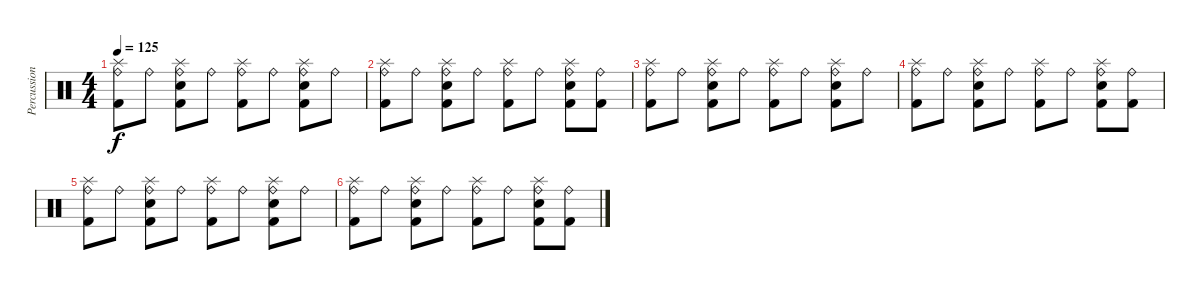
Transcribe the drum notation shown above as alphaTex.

\track ("Percussion" "Percussion") {instrument percussion}
\staff {score}
\articulation defaults
\ts (4 4)
\tempo 125
\clef neutral
\ks c
("Splash (hit)" "Ride (bell)" "Kick (hit) 2").8{dy f} "Ride (bell)".8 ("Splash (hit)" "Ride (bell)" "Snare (hit) 2" "Kick (hit) 2").8 "Ride (bell)".8 ("Splash (hit)" "Ride (bell)" "Kick (hit) 2").8 "Ride (bell)".8 ("Splash (hit)" "Ride (bell)" "Snare (hit) 2" "Kick (hit) 2").8 "Ride (bell)".8 |
("Splash (hit)" "Ride (bell)" "Kick (hit) 2").8 "Ride (bell)".8 ("Splash (hit)" "Ride (bell)" "Snare (hit) 2" "Kick (hit) 2").8 "Ride (bell)".8 ("Splash (hit)" "Ride (bell)" "Kick (hit) 2").8 "Ride (bell)".8 ("Splash (hit)" "Ride (bell)" "Snare (hit) 2" "Kick (hit) 2").8 ("Ride (bell)" "Kick (hit) 2").8 |
("Splash (hit)" "Ride (bell)" "Kick (hit) 2").8{volume 0} "Ride (bell)".8 ("Splash (hit)" "Ride (bell)" "Snare (hit) 2" "Kick (hit) 2").8 "Ride (bell)".8 ("Splash (hit)" "Ride (bell)" "Kick (hit) 2").8 "Ride (bell)".8 ("Splash (hit)" "Ride (bell)" "Snare (hit) 2" "Kick (hit) 2").8 "Ride (bell)".8 |
("Splash (hit)" "Ride (bell)" "Kick (hit) 2").8 "Ride (bell)".8 ("Splash (hit)" "Ride (bell)" "Snare (hit) 2" "Kick (hit) 2").8 "Ride (bell)".8 ("Splash (hit)" "Ride (bell)" "Kick (hit) 2").8 "Ride (bell)".8 ("Splash (hit)" "Ride (bell)" "Snare (hit) 2" "Kick (hit) 2").8 ("Ride (bell)" "Kick (hit) 2").8 |
("Splash (hit)" "Ride (bell)" "Kick (hit) 2").8 "Ride (bell)".8 ("Splash (hit)" "Ride (bell)" "Snare (hit) 2" "Kick (hit) 2").8 "Ride (bell)".8 ("Splash (hit)" "Ride (bell)" "Kick (hit) 2").8 "Ride (bell)".8 ("Splash (hit)" "Ride (bell)" "Snare (hit) 2" "Kick (hit) 2").8 "Ride (bell)".8 |
("Splash (hit)" "Ride (bell)" "Kick (hit) 2").8 "Ride (bell)".8 ("Splash (hit)" "Ride (bell)" "Snare (hit) 2" "Kick (hit) 2").8 "Ride (bell)".8 ("Splash (hit)" "Ride (bell)" "Kick (hit) 2").8 "Ride (bell)".8 ("Splash (hit)" "Ride (bell)" "Snare (hit) 2" "Kick (hit) 2").8 ("Ride (bell)" "Kick (hit) 2").8
